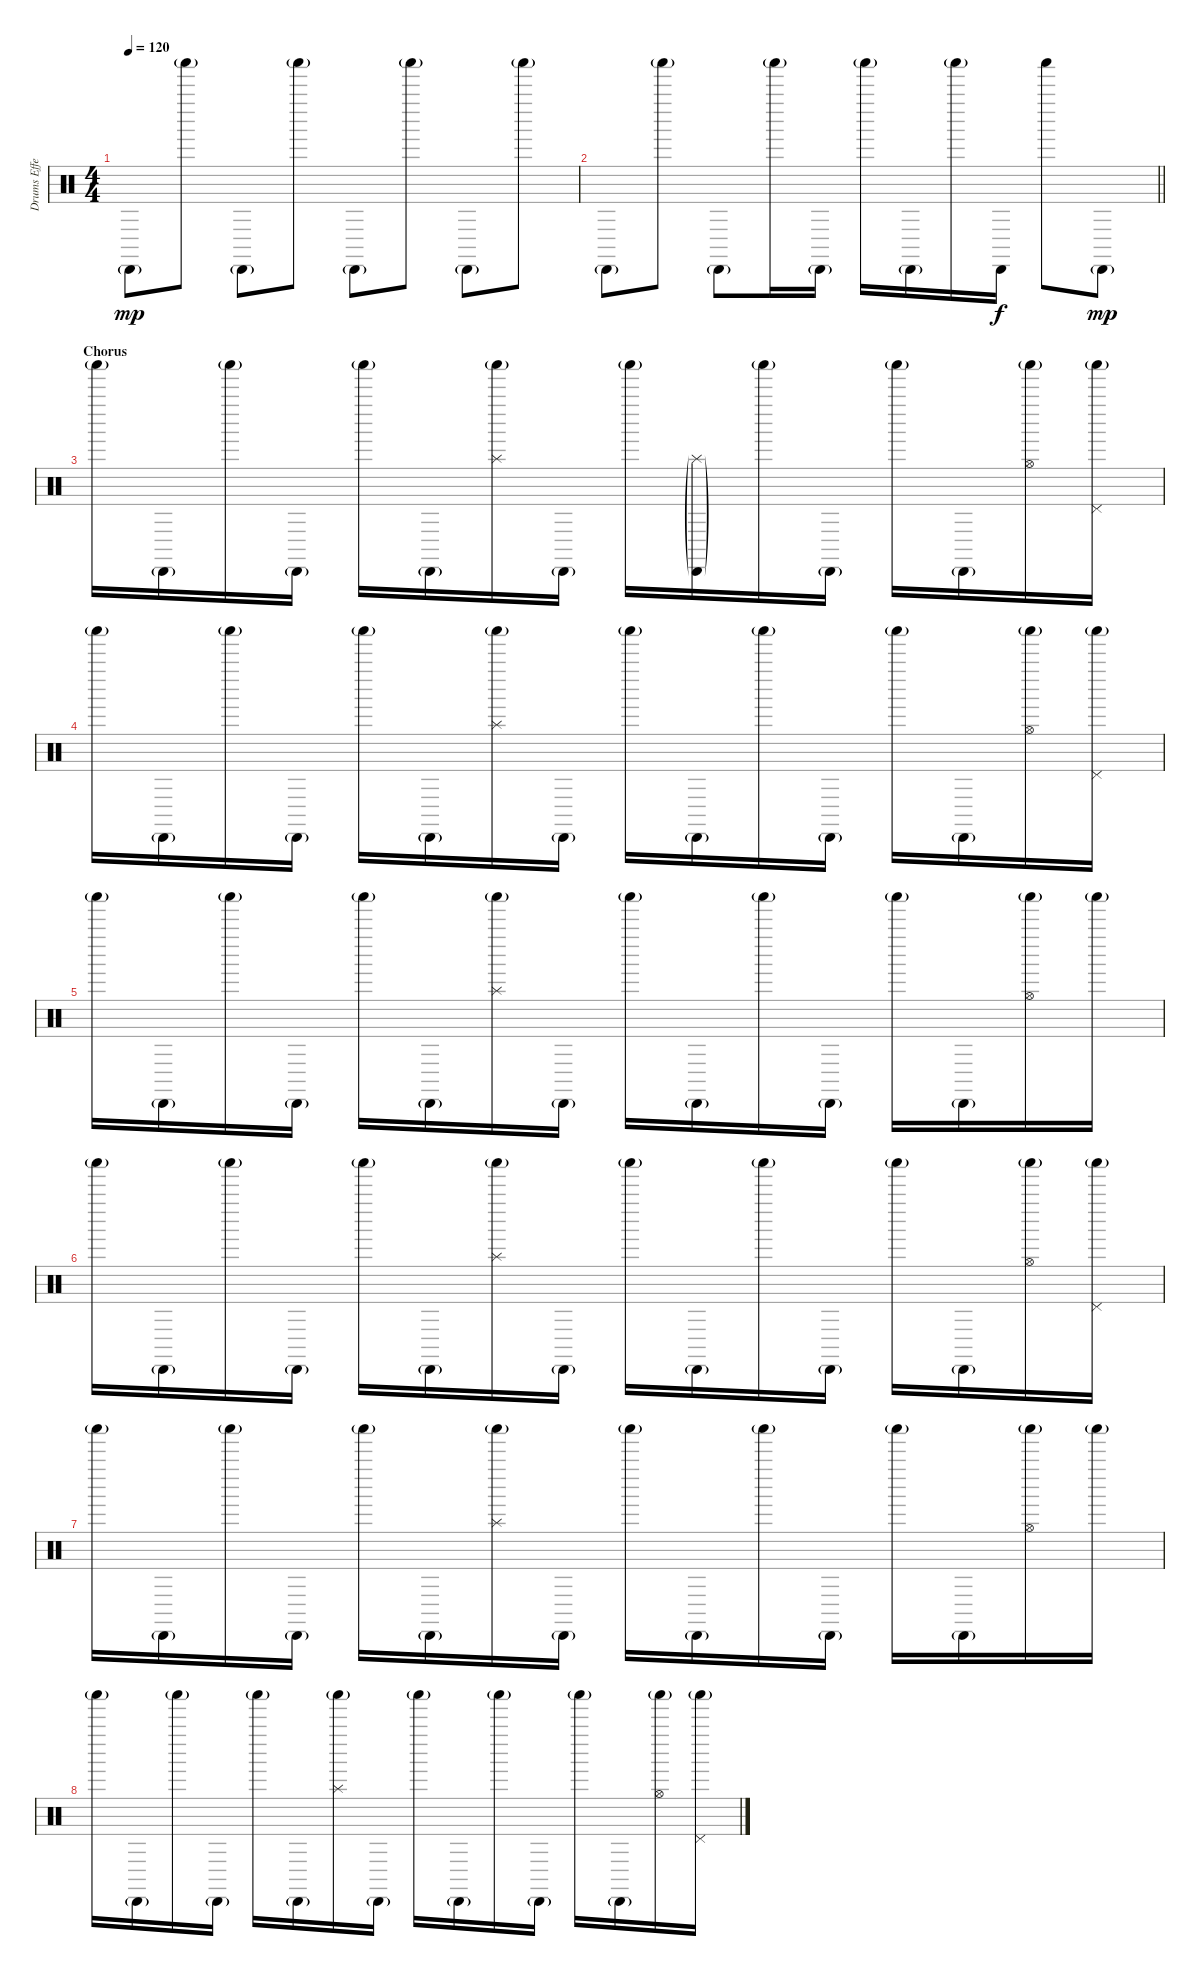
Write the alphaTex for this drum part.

\track ("Drums Effects" "Drums Effe") {instrument percussion}
\staff {score}
\articulation defaults
\ts (4 4)
\tempo 120
\clef neutral
\ks c "Cabasa (hit)"{g}.8{dy mp} "Shaker (hit)"{g}.8 "Cabasa (hit)"{g}.8 "Shaker (hit)"{g}.8 "Cabasa (hit)"{g}.8 "Shaker (hit)"{g}.8 "Cabasa (hit)"{g}.8 "Shaker (hit)"{g}.8
|
\barLineRight lightlight "Cabasa (hit)"{g}.8 "Shaker (hit)"{g}.8 "Cabasa (hit)"{g}.8 "Shaker (hit)"{g}.16 "Cabasa (hit)"{g}.16 "Shaker (hit)"{g}.16 "Cabasa (hit)"{g}.16 "Shaker (hit)"{g}.16 "Cabasa (hit)".16{dy f} "Shaker (hit)".8 "Cabasa (hit)"{g}.8{dy mp}
|
\section ("" "Chorus")
"Shaker (hit)"{g}.16 "Cabasa (hit)"{g}.16 "Shaker (hit)"{g}.16 "Cabasa (hit)"{g}.16 "Shaker (hit)"{g}.16 "Cabasa (hit)"{g}.16 ("Shaker (hit)"{g} "Splash (hit)").16 "Cabasa (hit)"{g}.16 "Shaker (hit)"{g}.16 ("Cabasa (hit)"{g} "Splash (hit)"{g}).16 "Shaker (hit)"{g}.16 "Cabasa (hit)"{g}.16 "Shaker (hit)"{g}.16 "Cabasa (hit)"{g}.16 ("Shaker (hit)"{g} "Hi-Hat (open)").16 ("Shaker (hit)"{g} "Pedal Hi-Hat (hit)").16 |
"Shaker (hit)"{g}.16 "Cabasa (hit)"{g}.16 "Shaker (hit)"{g}.16 "Cabasa (hit)"{g}.16 "Shaker (hit)"{g}.16 "Cabasa (hit)"{g}.16 ("Shaker (hit)"{g} "Splash (hit)").16 "Cabasa (hit)"{g}.16 "Shaker (hit)"{g}.16 "Cabasa (hit)"{g}.16 "Shaker (hit)"{g}.16 "Cabasa (hit)"{g}.16 "Shaker (hit)"{g}.16 "Cabasa (hit)"{g}.16 ("Shaker (hit)"{g} "Hi-Hat (open)").16 ("Shaker (hit)"{g} "Pedal Hi-Hat (hit)").16 |
"Shaker (hit)"{g}.16 "Cabasa (hit)"{g}.16 "Shaker (hit)"{g}.16 "Cabasa (hit)"{g}.16 "Shaker (hit)"{g}.16 "Cabasa (hit)"{g}.16 ("Shaker (hit)"{g} "Splash (hit)").16 "Cabasa (hit)"{g}.16 "Shaker (hit)"{g}.16 "Cabasa (hit)"{g}.16 "Shaker (hit)"{g}.16 "Cabasa (hit)"{g}.16 "Shaker (hit)"{g}.16 "Cabasa (hit)"{g}.16 ("Shaker (hit)"{g} "Hi-Hat (open)").16 "Shaker (hit)"{g}.16 |
"Shaker (hit)"{g}.16 "Cabasa (hit)"{g}.16 "Shaker (hit)"{g}.16 "Cabasa (hit)"{g}.16 "Shaker (hit)"{g}.16 "Cabasa (hit)"{g}.16 ("Shaker (hit)"{g} "Splash (hit)").16 "Cabasa (hit)"{g}.16 "Shaker (hit)"{g}.16 "Cabasa (hit)"{g}.16 "Shaker (hit)"{g}.16 "Cabasa (hit)"{g}.16 "Shaker (hit)"{g}.16 "Cabasa (hit)"{g}.16 ("Shaker (hit)"{g} "Hi-Hat (open)").16 ("Shaker (hit)"{g} "Pedal Hi-Hat (hit)").16 |
"Shaker (hit)"{g}.16 "Cabasa (hit)"{g}.16 "Shaker (hit)"{g}.16 "Cabasa (hit)"{g}.16 "Shaker (hit)"{g}.16 "Cabasa (hit)"{g}.16 ("Shaker (hit)"{g} "Splash (hit)").16 "Cabasa (hit)"{g}.16 "Shaker (hit)"{g}.16 "Cabasa (hit)"{g}.16 "Shaker (hit)"{g}.16 "Cabasa (hit)"{g}.16 "Shaker (hit)"{g}.16 "Cabasa (hit)"{g}.16 ("Shaker (hit)"{g} "Hi-Hat (open)").16 "Shaker (hit)"{g}.16 |
"Shaker (hit)"{g}.16 "Cabasa (hit)"{g}.16 "Shaker (hit)"{g}.16 "Cabasa (hit)"{g}.16 "Shaker (hit)"{g}.16 "Cabasa (hit)"{g}.16 ("Shaker (hit)"{g} "Splash (hit)").16 "Cabasa (hit)"{g}.16 "Shaker (hit)"{g}.16 "Cabasa (hit)"{g}.16 "Shaker (hit)"{g}.16 "Cabasa (hit)"{g}.16 "Shaker (hit)"{g}.16 "Cabasa (hit)"{g}.16 ("Shaker (hit)"{g} "Hi-Hat (open)").16 ("Shaker (hit)"{g} "Pedal Hi-Hat (hit)").16
